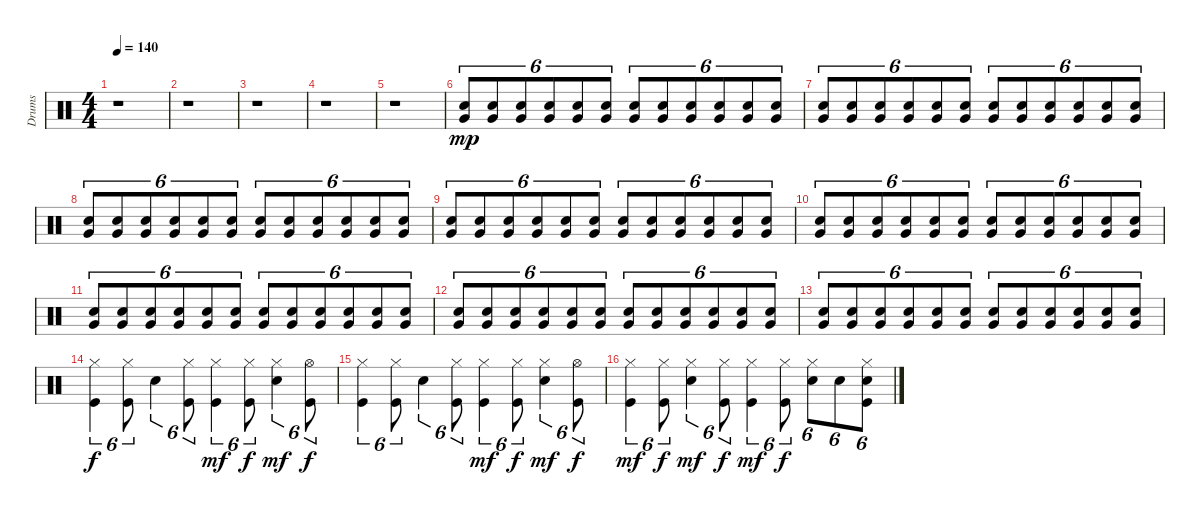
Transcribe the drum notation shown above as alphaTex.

\track ("Drums" "Drums") {instrument percussion}
\staff {score}
\articulation defaults
\ts (4 4)
\tempo 140
\clef neutral
\ks c
r.1{dy mp} |
r.1 |
r.1 |
r.1 |
r.1 |
("Electric Snare (hit)" "Very Low Tom (hit)").8{tu (6 4)} ("Electric Snare (hit)" "Very Low Tom (hit)").8{tu (6 4)} ("Electric Snare (hit)" "Very Low Tom (hit)").8{tu (6 4)} ("Electric Snare (hit)" "Very Low Tom (hit)").8{tu (6 4)} ("Electric Snare (hit)" "Very Low Tom (hit)").8{tu (6 4)} ("Electric Snare (hit)" "Very Low Tom (hit)").8{tu (6 4)} ("Electric Snare (hit)" "Very Low Tom (hit)").8{tu (6 4)} ("Electric Snare (hit)" "Very Low Tom (hit)").8{tu (6 4)} ("Electric Snare (hit)" "Very Low Tom (hit)").8{tu (6 4)} ("Electric Snare (hit)" "Very Low Tom (hit)").8{tu (6 4)} ("Electric Snare (hit)" "Very Low Tom (hit)").8{tu (6 4)} ("Electric Snare (hit)" "Very Low Tom (hit)").8{tu (6 4)} |
("Electric Snare (hit)" "Very Low Tom (hit)").8{tu (6 4)} ("Electric Snare (hit)" "Very Low Tom (hit)").8{tu (6 4)} ("Electric Snare (hit)" "Very Low Tom (hit)").8{tu (6 4)} ("Electric Snare (hit)" "Very Low Tom (hit)").8{tu (6 4)} ("Electric Snare (hit)" "Very Low Tom (hit)").8{tu (6 4)} ("Electric Snare (hit)" "Very Low Tom (hit)").8{tu (6 4)} ("Electric Snare (hit)" "Very Low Tom (hit)").8{tu (6 4)} ("Electric Snare (hit)" "Very Low Tom (hit)").8{tu (6 4)} ("Electric Snare (hit)" "Very Low Tom (hit)").8{tu (6 4)} ("Electric Snare (hit)" "Very Low Tom (hit)").8{tu (6 4)} ("Electric Snare (hit)" "Very Low Tom (hit)").8{tu (6 4)} ("Electric Snare (hit)" "Very Low Tom (hit)").8{tu (6 4)} |
("Electric Snare (hit)" "Very Low Tom (hit)").8{tu (6 4)} ("Electric Snare (hit)" "Very Low Tom (hit)").8{tu (6 4)} ("Electric Snare (hit)" "Very Low Tom (hit)").8{tu (6 4)} ("Electric Snare (hit)" "Very Low Tom (hit)").8{tu (6 4)} ("Electric Snare (hit)" "Very Low Tom (hit)").8{tu (6 4)} ("Electric Snare (hit)" "Very Low Tom (hit)").8{tu (6 4)} ("Electric Snare (hit)" "Very Low Tom (hit)").8{tu (6 4)} ("Electric Snare (hit)" "Very Low Tom (hit)").8{tu (6 4)} ("Electric Snare (hit)" "Very Low Tom (hit)").8{tu (6 4)} ("Electric Snare (hit)" "Very Low Tom (hit)").8{tu (6 4)} ("Electric Snare (hit)" "Very Low Tom (hit)").8{tu (6 4)} ("Electric Snare (hit)" "Very Low Tom (hit)").8{tu (6 4)} |
("Electric Snare (hit)" "Very Low Tom (hit)").8{tu (6 4)} ("Electric Snare (hit)" "Very Low Tom (hit)").8{tu (6 4)} ("Electric Snare (hit)" "Very Low Tom (hit)").8{tu (6 4)} ("Electric Snare (hit)" "Very Low Tom (hit)").8{tu (6 4)} ("Electric Snare (hit)" "Very Low Tom (hit)").8{tu (6 4)} ("Electric Snare (hit)" "Very Low Tom (hit)").8{tu (6 4)} ("Electric Snare (hit)" "Very Low Tom (hit)").8{tu (6 4)} ("Electric Snare (hit)" "Very Low Tom (hit)").8{tu (6 4)} ("Electric Snare (hit)" "Very Low Tom (hit)").8{tu (6 4)} ("Electric Snare (hit)" "Very Low Tom (hit)").8{tu (6 4)} ("Electric Snare (hit)" "Very Low Tom (hit)").8{tu (6 4)} ("Electric Snare (hit)" "Very Low Tom (hit)").8{tu (6 4)} |
("Electric Snare (hit)" "Very Low Tom (hit)").8{tu (6 4)} ("Electric Snare (hit)" "Very Low Tom (hit)").8{tu (6 4)} ("Electric Snare (hit)" "Very Low Tom (hit)").8{tu (6 4)} ("Electric Snare (hit)" "Very Low Tom (hit)").8{tu (6 4)} ("Electric Snare (hit)" "Very Low Tom (hit)").8{tu (6 4)} ("Electric Snare (hit)" "Very Low Tom (hit)").8{tu (6 4)} ("Electric Snare (hit)" "Very Low Tom (hit)").8{tu (6 4)} ("Electric Snare (hit)" "Very Low Tom (hit)").8{tu (6 4)} ("Electric Snare (hit)" "Very Low Tom (hit)").8{tu (6 4)} ("Electric Snare (hit)" "Very Low Tom (hit)").8{tu (6 4)} ("Electric Snare (hit)" "Very Low Tom (hit)").8{tu (6 4)} ("Electric Snare (hit)" "Very Low Tom (hit)").8{tu (6 4)} |
("Electric Snare (hit)" "Very Low Tom (hit)").8{tu (6 4)} ("Electric Snare (hit)" "Very Low Tom (hit)").8{tu (6 4)} ("Electric Snare (hit)" "Very Low Tom (hit)").8{tu (6 4)} ("Electric Snare (hit)" "Very Low Tom (hit)").8{tu (6 4)} ("Electric Snare (hit)" "Very Low Tom (hit)").8{tu (6 4)} ("Electric Snare (hit)" "Very Low Tom (hit)").8{tu (6 4)} ("Electric Snare (hit)" "Very Low Tom (hit)").8{tu (6 4)} ("Electric Snare (hit)" "Very Low Tom (hit)").8{tu (6 4)} ("Electric Snare (hit)" "Very Low Tom (hit)").8{tu (6 4)} ("Electric Snare (hit)" "Very Low Tom (hit)").8{tu (6 4)} ("Electric Snare (hit)" "Very Low Tom (hit)").8{tu (6 4)} ("Electric Snare (hit)" "Very Low Tom (hit)").8{tu (6 4)} |
("Electric Snare (hit)" "Very Low Tom (hit)").8{tu (6 4)} ("Electric Snare (hit)" "Very Low Tom (hit)").8{tu (6 4)} ("Electric Snare (hit)" "Very Low Tom (hit)").8{tu (6 4)} ("Electric Snare (hit)" "Very Low Tom (hit)").8{tu (6 4)} ("Electric Snare (hit)" "Very Low Tom (hit)").8{tu (6 4)} ("Electric Snare (hit)" "Very Low Tom (hit)").8{tu (6 4)} ("Electric Snare (hit)" "Very Low Tom (hit)").8{tu (6 4)} ("Electric Snare (hit)" "Very Low Tom (hit)").8{tu (6 4)} ("Electric Snare (hit)" "Very Low Tom (hit)").8{tu (6 4)} ("Electric Snare (hit)" "Very Low Tom (hit)").8{tu (6 4)} ("Electric Snare (hit)" "Very Low Tom (hit)").8{tu (6 4)} ("Electric Snare (hit)" "Very Low Tom (hit)").8{tu (6 4)} |
("Electric Snare (hit)" "Very Low Tom (hit)").8{tu (6 4)} ("Electric Snare (hit)" "Very Low Tom (hit)").8{tu (6 4)} ("Electric Snare (hit)" "Very Low Tom (hit)").8{tu (6 4)} ("Electric Snare (hit)" "Very Low Tom (hit)").8{tu (6 4)} ("Electric Snare (hit)" "Very Low Tom (hit)").8{tu (6 4)} ("Electric Snare (hit)" "Very Low Tom (hit)").8{tu (6 4)} ("Electric Snare (hit)" "Very Low Tom (hit)").8{tu (6 4)} ("Electric Snare (hit)" "Very Low Tom (hit)").8{tu (6 4)} ("Electric Snare (hit)" "Very Low Tom (hit)").8{tu (6 4)} ("Electric Snare (hit)" "Very Low Tom (hit)").8{tu (6 4)} ("Electric Snare (hit)" "Very Low Tom (hit)").8{tu (6 4)} ("Electric Snare (hit)" "Very Low Tom (hit)").8{tu (6 4)} |
("Kick (hit)" "Hi-Hat (closed)").4{tu (6 4) dy f} ("Kick (hit)" "Hi-Hat (closed)").8{tu (6 4)} "Electric Snare (hit)".4{tu (6 4)} ("Kick (hit)" "Hi-Hat (closed)").8{tu (6 4)} ("Kick (hit)" "Hi-Hat (closed)").4{tu (6 4) dy mf} ("Kick (hit)" "Hi-Hat (closed)").8{tu (6 4) dy f} ("Electric Snare (hit)" "Hi-Hat (closed)").4{tu (6 4) dy mf} ("Kick (hit)" "Hi-Hat (open)").8{tu (6 4) dy f} |
("Kick (hit)" "Hi-Hat (closed)").4{tu (6 4)} ("Kick (hit)" "Hi-Hat (closed)").8{tu (6 4)} "Electric Snare (hit)".4{tu (6 4)} ("Kick (hit)" "Hi-Hat (closed)").8{tu (6 4)} ("Kick (hit)" "Hi-Hat (closed)").4{tu (6 4) dy mf} ("Kick (hit)" "Hi-Hat (closed)").8{tu (6 4) dy f} ("Electric Snare (hit)" "Hi-Hat (closed)").4{tu (6 4) dy mf} ("Kick (hit)" "Hi-Hat (open)").8{tu (6 4) dy f} |
("Kick (hit)" "Hi-Hat (closed)").4{tu (6 4) dy mf} ("Kick (hit)" "Hi-Hat (closed)").8{tu (6 4) dy f} ("Electric Snare (hit)" "Hi-Hat (closed)").4{tu (6 4) dy mf} ("Kick (hit)" "Hi-Hat (closed)").8{tu (6 4) dy f} ("Kick (hit)" "Hi-Hat (closed)").4{tu (6 4) dy mf} ("Kick (hit)" "Hi-Hat (closed)").8{tu (6 4) dy f} ("Electric Snare (hit)" "Hi-Hat (closed)").8{tu (6 4)} "Electric Snare (hit)".8{tu (6 4)} ("Kick (hit)" "Snare (hit) 2" "Hi-Hat (closed)").8{tu (6 4)}
